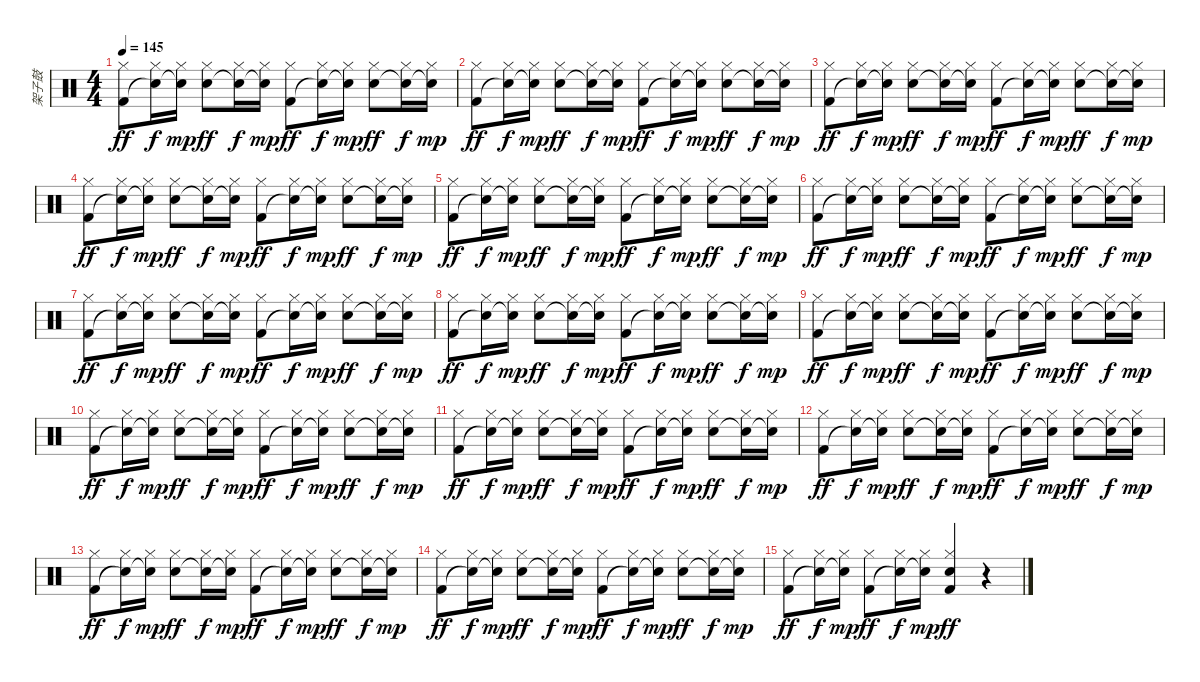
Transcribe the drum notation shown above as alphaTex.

\track ("架子鼓" "架子鼓") {instrument percussion}
\staff {score}
\articulation defaults
\ts (4 4)
\tempo 145
\clef neutral
\ks c
("Kick (hit) 2" "Hi-Hat (closed)").8{dy ff} ("Snare (hit)"{t} "Hi-Hat (closed)").16{dy f} ("Snare (hit)"{t} "Hi-Hat (closed)").16{dy mp} ("Snare (hit) 2" "Hi-Hat (closed)").8{dy ff} ("Snare (hit)"{t} "Hi-Hat (closed)").16{dy f} ("Snare (hit)"{t} "Hi-Hat (closed)").16{dy mp} ("Kick (hit) 2" "Hi-Hat (closed)").8{dy ff} ("Snare (hit)"{t} "Hi-Hat (closed)").16{dy f} ("Snare (hit)"{t} "Hi-Hat (closed)").16{dy mp} ("Snare (hit) 2" "Hi-Hat (closed)").8{dy ff} ("Snare (hit)"{t} "Hi-Hat (closed)").16{dy f} ("Snare (hit)"{t} "Hi-Hat (closed)").16{dy mp} |
("Kick (hit) 2" "Hi-Hat (closed)").8{dy ff} ("Snare (hit)"{t} "Hi-Hat (closed)").16{dy f} ("Snare (hit)"{t} "Hi-Hat (closed)").16{dy mp} ("Snare (hit) 2" "Hi-Hat (closed)").8{dy ff} ("Snare (hit)"{t} "Hi-Hat (closed)").16{dy f} ("Snare (hit)"{t} "Hi-Hat (closed)").16{dy mp} ("Kick (hit) 2" "Hi-Hat (closed)").8{dy ff} ("Snare (hit)"{t} "Hi-Hat (closed)").16{dy f} ("Snare (hit)"{t} "Hi-Hat (closed)").16{dy mp} ("Snare (hit) 2" "Hi-Hat (closed)").8{dy ff} ("Snare (hit)"{t} "Hi-Hat (closed)").16{dy f} ("Snare (hit)"{t} "Hi-Hat (closed)").16{dy mp} |
("Kick (hit) 2" "Hi-Hat (closed)").8{dy ff} ("Snare (hit)"{t} "Hi-Hat (closed)").16{dy f} ("Snare (hit)"{t} "Hi-Hat (closed)").16{dy mp} ("Snare (hit) 2" "Hi-Hat (closed)").8{dy ff} ("Snare (hit)"{t} "Hi-Hat (closed)").16{dy f} ("Snare (hit)"{t} "Hi-Hat (closed)").16{dy mp} ("Kick (hit) 2" "Hi-Hat (closed)").8{dy ff} ("Snare (hit)"{t} "Hi-Hat (closed)").16{dy f} ("Snare (hit)"{t} "Hi-Hat (closed)").16{dy mp} ("Snare (hit) 2" "Hi-Hat (closed)").8{dy ff} ("Snare (hit)"{t} "Hi-Hat (closed)").16{dy f} ("Snare (hit)"{t} "Hi-Hat (closed)").16{dy mp} |
("Kick (hit) 2" "Hi-Hat (closed)").8{dy ff} ("Snare (hit)"{t} "Hi-Hat (closed)").16{dy f} ("Snare (hit)"{t} "Hi-Hat (closed)").16{dy mp} ("Snare (hit) 2" "Hi-Hat (closed)").8{dy ff} ("Snare (hit)"{t} "Hi-Hat (closed)").16{dy f} ("Snare (hit)"{t} "Hi-Hat (closed)").16{dy mp} ("Kick (hit) 2" "Hi-Hat (closed)").8{dy ff} ("Snare (hit)"{t} "Hi-Hat (closed)").16{dy f} ("Snare (hit)"{t} "Hi-Hat (closed)").16{dy mp} ("Snare (hit) 2" "Hi-Hat (closed)").8{dy ff} ("Snare (hit)"{t} "Hi-Hat (closed)").16{dy f} ("Snare (hit)"{t} "Hi-Hat (closed)").16{dy mp} |
("Kick (hit) 2" "Hi-Hat (closed)").8{dy ff} ("Snare (hit)"{t} "Hi-Hat (closed)").16{dy f} ("Snare (hit)"{t} "Hi-Hat (closed)").16{dy mp} ("Snare (hit) 2" "Hi-Hat (closed)").8{dy ff} ("Snare (hit)"{t} "Hi-Hat (closed)").16{dy f} ("Snare (hit)"{t} "Hi-Hat (closed)").16{dy mp} ("Kick (hit) 2" "Hi-Hat (closed)").8{dy ff} ("Snare (hit)"{t} "Hi-Hat (closed)").16{dy f} ("Snare (hit)"{t} "Hi-Hat (closed)").16{dy mp} ("Snare (hit) 2" "Hi-Hat (closed)").8{dy ff} ("Snare (hit)"{t} "Hi-Hat (closed)").16{dy f} ("Snare (hit)"{t} "Hi-Hat (closed)").16{dy mp} |
("Kick (hit) 2" "Hi-Hat (closed)").8{dy ff} ("Snare (hit)"{t} "Hi-Hat (closed)").16{dy f} ("Snare (hit)"{t} "Hi-Hat (closed)").16{dy mp} ("Snare (hit) 2" "Hi-Hat (closed)").8{dy ff} ("Snare (hit)"{t} "Hi-Hat (closed)").16{dy f} ("Snare (hit)"{t} "Hi-Hat (closed)").16{dy mp} ("Kick (hit) 2" "Hi-Hat (closed)").8{dy ff} ("Snare (hit)"{t} "Hi-Hat (closed)").16{dy f} ("Snare (hit)"{t} "Hi-Hat (closed)").16{dy mp} ("Snare (hit) 2" "Hi-Hat (closed)").8{dy ff} ("Snare (hit)"{t} "Hi-Hat (closed)").16{dy f} ("Snare (hit)"{t} "Hi-Hat (closed)").16{dy mp} |
("Kick (hit) 2" "Hi-Hat (closed)").8{dy ff} ("Snare (hit)"{t} "Hi-Hat (closed)").16{dy f} ("Snare (hit)"{t} "Hi-Hat (closed)").16{dy mp} ("Snare (hit) 2" "Hi-Hat (closed)").8{dy ff} ("Snare (hit)"{t} "Hi-Hat (closed)").16{dy f} ("Snare (hit)"{t} "Hi-Hat (closed)").16{dy mp} ("Kick (hit) 2" "Hi-Hat (closed)").8{dy ff} ("Snare (hit)"{t} "Hi-Hat (closed)").16{dy f} ("Snare (hit)"{t} "Hi-Hat (closed)").16{dy mp} ("Snare (hit) 2" "Hi-Hat (closed)").8{dy ff} ("Snare (hit)"{t} "Hi-Hat (closed)").16{dy f} ("Snare (hit)"{t} "Hi-Hat (closed)").16{dy mp} |
("Kick (hit) 2" "Hi-Hat (closed)").8{dy ff} ("Snare (hit)"{t} "Hi-Hat (closed)").16{dy f} ("Snare (hit)"{t} "Hi-Hat (closed)").16{dy mp} ("Snare (hit) 2" "Hi-Hat (closed)").8{dy ff} ("Snare (hit)"{t} "Hi-Hat (closed)").16{dy f} ("Snare (hit)"{t} "Hi-Hat (closed)").16{dy mp} ("Kick (hit) 2" "Hi-Hat (closed)").8{dy ff} ("Snare (hit)"{t} "Hi-Hat (closed)").16{dy f} ("Snare (hit)"{t} "Hi-Hat (closed)").16{dy mp} ("Snare (hit) 2" "Hi-Hat (closed)").8{dy ff} ("Snare (hit)"{t} "Hi-Hat (closed)").16{dy f} ("Snare (hit)"{t} "Hi-Hat (closed)").16{dy mp} |
("Kick (hit) 2" "Hi-Hat (closed)").8{dy ff} ("Snare (hit)"{t} "Hi-Hat (closed)").16{dy f} ("Snare (hit)"{t} "Hi-Hat (closed)").16{dy mp} ("Snare (hit) 2" "Hi-Hat (closed)").8{dy ff} ("Snare (hit)"{t} "Hi-Hat (closed)").16{dy f} ("Snare (hit)"{t} "Hi-Hat (closed)").16{dy mp} ("Kick (hit) 2" "Hi-Hat (closed)").8{dy ff} ("Snare (hit)"{t} "Hi-Hat (closed)").16{dy f} ("Snare (hit)"{t} "Hi-Hat (closed)").16{dy mp} ("Snare (hit) 2" "Hi-Hat (closed)").8{dy ff} ("Snare (hit)"{t} "Hi-Hat (closed)").16{dy f} ("Snare (hit)"{t} "Hi-Hat (closed)").16{dy mp} |
("Kick (hit) 2" "Hi-Hat (closed)").8{dy ff} ("Snare (hit)"{t} "Hi-Hat (closed)").16{dy f} ("Snare (hit)"{t} "Hi-Hat (closed)").16{dy mp} ("Snare (hit) 2" "Hi-Hat (closed)").8{dy ff} ("Snare (hit)"{t} "Hi-Hat (closed)").16{dy f} ("Snare (hit)"{t} "Hi-Hat (closed)").16{dy mp} ("Kick (hit) 2" "Hi-Hat (closed)").8{dy ff} ("Snare (hit)"{t} "Hi-Hat (closed)").16{dy f} ("Snare (hit)"{t} "Hi-Hat (closed)").16{dy mp} ("Snare (hit) 2" "Hi-Hat (closed)").8{dy ff} ("Snare (hit)"{t} "Hi-Hat (closed)").16{dy f} ("Snare (hit)"{t} "Hi-Hat (closed)").16{dy mp} |
("Kick (hit) 2" "Hi-Hat (closed)").8{dy ff} ("Snare (hit)"{t} "Hi-Hat (closed)").16{dy f} ("Snare (hit)"{t} "Hi-Hat (closed)").16{dy mp} ("Snare (hit) 2" "Hi-Hat (closed)").8{dy ff} ("Snare (hit)"{t} "Hi-Hat (closed)").16{dy f} ("Snare (hit)"{t} "Hi-Hat (closed)").16{dy mp} ("Kick (hit) 2" "Hi-Hat (closed)").8{dy ff} ("Snare (hit)"{t} "Hi-Hat (closed)").16{dy f} ("Snare (hit)"{t} "Hi-Hat (closed)").16{dy mp} ("Snare (hit) 2" "Hi-Hat (closed)").8{dy ff} ("Snare (hit)"{t} "Hi-Hat (closed)").16{dy f} ("Snare (hit)"{t} "Hi-Hat (closed)").16{dy mp} |
("Kick (hit) 2" "Hi-Hat (closed)").8{dy ff} ("Snare (hit)"{t} "Hi-Hat (closed)").16{dy f} ("Snare (hit)"{t} "Hi-Hat (closed)").16{dy mp} ("Snare (hit) 2" "Hi-Hat (closed)").8{dy ff} ("Snare (hit)"{t} "Hi-Hat (closed)").16{dy f} ("Snare (hit)"{t} "Hi-Hat (closed)").16{dy mp} ("Kick (hit) 2" "Hi-Hat (closed)").8{dy ff} ("Snare (hit)"{t} "Hi-Hat (closed)").16{dy f} ("Snare (hit)"{t} "Hi-Hat (closed)").16{dy mp} ("Snare (hit) 2" "Hi-Hat (closed)").8{dy ff} ("Snare (hit)"{t} "Hi-Hat (closed)").16{dy f} ("Snare (hit)"{t} "Hi-Hat (closed)").16{dy mp} |
("Kick (hit) 2" "Hi-Hat (closed)").8{dy ff} ("Snare (hit)"{t} "Hi-Hat (closed)").16{dy f} ("Snare (hit)"{t} "Hi-Hat (closed)").16{dy mp} ("Snare (hit) 2" "Hi-Hat (closed)").8{dy ff} ("Snare (hit)"{t} "Hi-Hat (closed)").16{dy f} ("Snare (hit)"{t} "Hi-Hat (closed)").16{dy mp} ("Kick (hit) 2" "Hi-Hat (closed)").8{dy ff} ("Snare (hit)"{t} "Hi-Hat (closed)").16{dy f} ("Snare (hit)"{t} "Hi-Hat (closed)").16{dy mp} ("Snare (hit) 2" "Hi-Hat (closed)").8{dy ff} ("Snare (hit)"{t} "Hi-Hat (closed)").16{dy f} ("Snare (hit)"{t} "Hi-Hat (closed)").16{dy mp} |
("Kick (hit) 2" "Hi-Hat (closed)").8{dy ff} ("Snare (hit)"{t} "Hi-Hat (closed)").16{dy f} ("Snare (hit)"{t} "Hi-Hat (closed)").16{dy mp} ("Snare (hit) 2" "Hi-Hat (closed)").8{dy ff} ("Snare (hit)"{t} "Hi-Hat (closed)").16{dy f} ("Snare (hit)"{t} "Hi-Hat (closed)").16{dy mp} ("Kick (hit) 2" "Hi-Hat (closed)").8{dy ff} ("Snare (hit)"{t} "Hi-Hat (closed)").16{dy f} ("Snare (hit)"{t} "Hi-Hat (closed)").16{dy mp} ("Snare (hit) 2" "Hi-Hat (closed)").8{dy ff} ("Snare (hit)"{t} "Hi-Hat (closed)").16{dy f} ("Snare (hit)"{t} "Hi-Hat (closed)").16{dy mp} |
("Kick (hit) 2" "Hi-Hat (closed)").8{dy ff} ("Snare (hit)"{t} "Hi-Hat (closed)").16{dy f} ("Snare (hit)"{t} "Hi-Hat (closed)").16{dy mp} ("Kick (hit) 2" "Hi-Hat (closed)").8{dy ff} ("Snare (hit)"{t} "Hi-Hat (closed)").16{dy f} ("Snare (hit)"{t} "Hi-Hat (closed)").16{dy mp} ("Snare (hit) 2" "Kick (hit) 2" "Hi-Hat (closed)").4{dy ff} r.4
